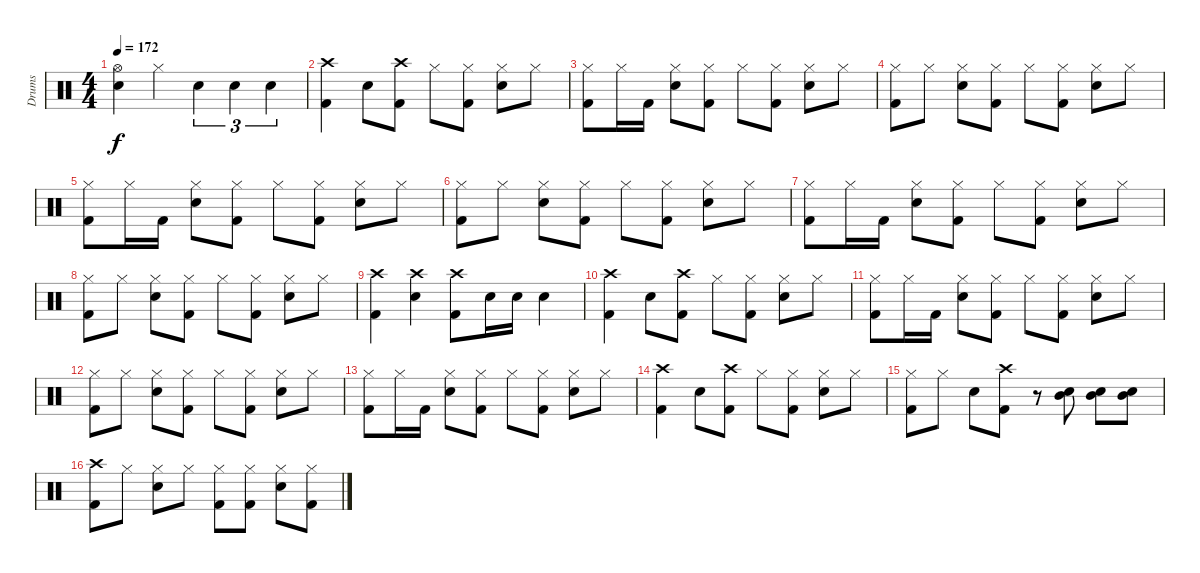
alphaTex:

\track ("Drums" "Drums") {instrument percussion}
\staff {score}
\articulation defaults
\ts (4 4)
\tempo 172
\clef neutral
\ks c
("Hi-Hat (open)" "Electric Snare (hit)").4{dy f} "Hi-Hat (closed)".4 "Electric Snare (hit)".4{tu (3 2)} "Electric Snare (hit)".4{tu (3 2)} "Electric Snare (hit)".4{tu (3 2)} |
("Crash high (hit)" "Kick (hit) 2").4 "Electric Snare (hit)".8 ("Crash high (hit)" "Kick (hit) 2").8 "Hi-Hat (closed)".8 ("Hi-Hat (closed)" "Kick (hit) 2").8 ("Hi-Hat (closed)" "Electric Snare (hit)").8 "Hi-Hat (closed)".8 |
("Hi-Hat (closed)" "Kick (hit) 2").8 "Hi-Hat (closed)".16 "Kick (hit) 2".16 ("Hi-Hat (closed)" "Electric Snare (hit)").8 ("Hi-Hat (closed)" "Kick (hit) 2").8 "Hi-Hat (closed)".8 ("Hi-Hat (closed)" "Kick (hit) 2").8 ("Hi-Hat (closed)" "Electric Snare (hit)").8 "Hi-Hat (closed)".8 |
("Hi-Hat (closed)" "Kick (hit) 2").8 "Hi-Hat (closed)".8 ("Hi-Hat (closed)" "Electric Snare (hit)").8 ("Hi-Hat (closed)" "Kick (hit) 2").8 "Hi-Hat (closed)".8 ("Hi-Hat (closed)" "Kick (hit) 2").8 ("Hi-Hat (closed)" "Electric Snare (hit)").8 "Hi-Hat (closed)".8 |
("Hi-Hat (closed)" "Kick (hit) 2").8 "Hi-Hat (closed)".16 "Kick (hit) 2".16 ("Hi-Hat (closed)" "Electric Snare (hit)").8 ("Hi-Hat (closed)" "Kick (hit) 2").8 "Hi-Hat (closed)".8 ("Hi-Hat (closed)" "Kick (hit) 2").8 ("Hi-Hat (closed)" "Electric Snare (hit)").8 "Hi-Hat (closed)".8 |
("Hi-Hat (closed)" "Kick (hit) 2").8 "Hi-Hat (closed)".8 ("Hi-Hat (closed)" "Electric Snare (hit)").8 ("Hi-Hat (closed)" "Kick (hit) 2").8 "Hi-Hat (closed)".8 ("Hi-Hat (closed)" "Kick (hit) 2").8 ("Hi-Hat (closed)" "Electric Snare (hit)").8 "Hi-Hat (closed)".8 |
("Hi-Hat (closed)" "Kick (hit) 2").8 "Hi-Hat (closed)".16 "Kick (hit) 2".16 ("Hi-Hat (closed)" "Electric Snare (hit)").8 ("Hi-Hat (closed)" "Kick (hit) 2").8 "Hi-Hat (closed)".8 ("Hi-Hat (closed)" "Kick (hit) 2").8 ("Hi-Hat (closed)" "Electric Snare (hit)").8 "Hi-Hat (closed)".8 |
("Hi-Hat (closed)" "Kick (hit) 2").8 "Hi-Hat (closed)".8 ("Hi-Hat (closed)" "Electric Snare (hit)").8 ("Hi-Hat (closed)" "Kick (hit) 2").8 "Hi-Hat (closed)".8 ("Hi-Hat (closed)" "Kick (hit) 2").8 ("Hi-Hat (closed)" "Electric Snare (hit)").8 "Hi-Hat (closed)".8 |
("Crash high (hit)" "Kick (hit) 2").4 ("Crash high (hit)" "Electric Snare (hit)").4 ("Crash high (hit)" "Kick (hit) 2").8 "Electric Snare (hit)".16 "Electric Snare (hit)".16 "Electric Snare (hit)".4 |
("Crash high (hit)" "Kick (hit) 2").4 "Electric Snare (hit)".8 ("Crash high (hit)" "Kick (hit) 2").8 "Hi-Hat (closed)".8 ("Hi-Hat (closed)" "Kick (hit) 2").8 ("Hi-Hat (closed)" "Electric Snare (hit)").8 "Hi-Hat (closed)".8 |
("Hi-Hat (closed)" "Kick (hit) 2").8 "Hi-Hat (closed)".16 "Kick (hit) 2".16 ("Hi-Hat (closed)" "Electric Snare (hit)").8 ("Hi-Hat (closed)" "Kick (hit) 2").8 "Hi-Hat (closed)".8 ("Hi-Hat (closed)" "Kick (hit) 2").8 ("Hi-Hat (closed)" "Electric Snare (hit)").8 "Hi-Hat (closed)".8 |
("Hi-Hat (closed)" "Kick (hit) 2").8 "Hi-Hat (closed)".8 ("Hi-Hat (closed)" "Electric Snare (hit)").8 ("Hi-Hat (closed)" "Kick (hit) 2").8 "Hi-Hat (closed)".8 ("Hi-Hat (closed)" "Kick (hit) 2").8 ("Hi-Hat (closed)" "Electric Snare (hit)").8 "Hi-Hat (closed)".8 |
("Hi-Hat (closed)" "Kick (hit) 2").8 "Hi-Hat (closed)".16 "Kick (hit) 2".16 ("Hi-Hat (closed)" "Electric Snare (hit)").8 ("Hi-Hat (closed)" "Kick (hit) 2").8 "Hi-Hat (closed)".8 ("Hi-Hat (closed)" "Kick (hit) 2").8 ("Hi-Hat (closed)" "Electric Snare (hit)").8 "Hi-Hat (closed)".8 |
("Crash high (hit)" "Kick (hit) 2").4 "Electric Snare (hit)".8 ("Crash high (hit)" "Kick (hit) 2").8 "Hi-Hat (closed)".8 ("Hi-Hat (closed)" "Kick (hit) 2").8 ("Hi-Hat (closed)" "Electric Snare (hit)").8 "Hi-Hat (closed)".8 |
("Hi-Hat (closed)" "Kick (hit) 2").8 "Hi-Hat (closed)".8 "Electric Snare (hit)".8 ("Crash high (hit)" "Kick (hit) 2").8 r.8 ("Mid Tom (hit)" "Electric Snare (hit)").8 ("Mid Tom (hit)" "Electric Snare (hit)").8 ("Mid Tom (hit)" "Electric Snare (hit)").8 |
("Crash high (hit)" "Kick (hit) 2").8 "Hi-Hat (closed)".8 ("Hi-Hat (closed)" "Electric Snare (hit)").8 "Hi-Hat (closed)".8 ("Hi-Hat (closed)" "Kick (hit) 2").8 ("Hi-Hat (closed)" "Kick (hit) 2").8 ("Hi-Hat (closed)" "Electric Snare (hit)").8 ("Hi-Hat (closed)" "Kick (hit) 2").8
